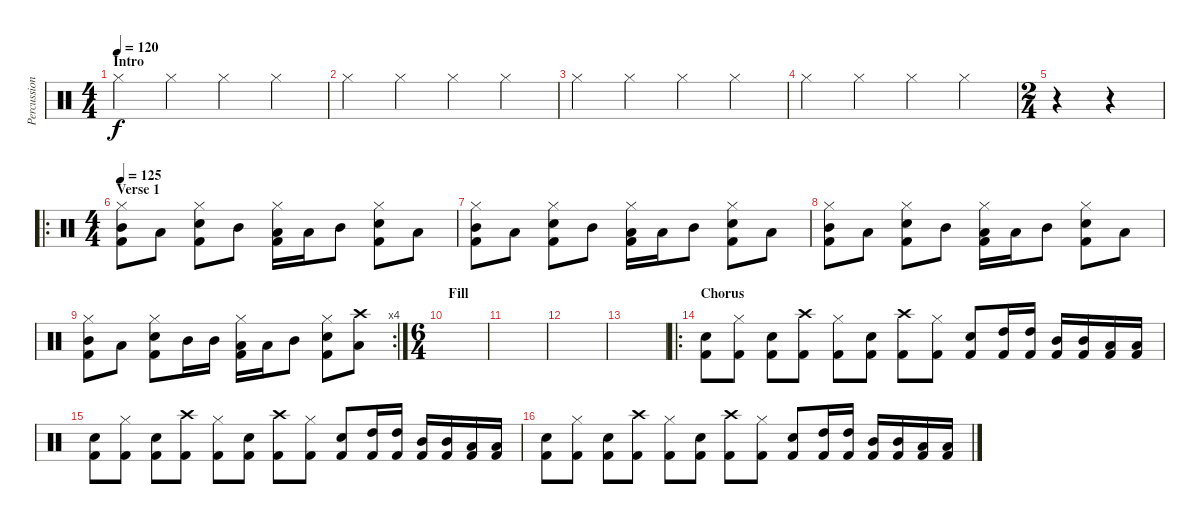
\track ("Percussion" "Percussion") {instrument percussion}
\staff {score}
\articulation defaults
\ts (4 4)
\section ("" "Intro")
\tempo 120
\tempo 125
\tempo 120
\clef neutral
\ks c "Hi-Hat (closed)".4{dy f} "Hi-Hat (closed)".4 "Hi-Hat (closed)".4 "Hi-Hat (closed)".4
|
"Hi-Hat (closed)".4 "Hi-Hat (closed)".4 "Hi-Hat (closed)".4 "Hi-Hat (closed)".4 |
"Hi-Hat (closed)".4 "Hi-Hat (closed)".4 "Hi-Hat (closed)".4 "Hi-Hat (closed)".4 |
"Hi-Hat (closed)".4 "Hi-Hat (closed)".4 "Hi-Hat (closed)".4 "Hi-Hat (closed)".4 |
\ts (2 4)
r.4 r.4 |
\ro
\ts (4 4)
\section ("" "Verse 1")
\tempo 125
("Hi-Hat (closed)" "Mid Tom (hit)" "Kick (hit) 2").8 "Low Tom (hit)".8 ("Hi-Hat (closed)" "Electric Snare (hit)" "Kick (hit) 2").8 "Mid Tom (hit)".8 ("Hi-Hat (closed)" "Low Tom (hit)" "Kick (hit) 2").16 "Low Tom (hit)".16 "Mid Tom (hit)".8 ("Hi-Hat (closed)" "Electric Snare (hit)" "Kick (hit) 2").8 "Low Tom (hit)".8 |
("Hi-Hat (closed)" "Mid Tom (hit)" "Kick (hit) 2").8 "Low Tom (hit)".8 ("Hi-Hat (closed)" "Electric Snare (hit)" "Kick (hit) 2").8 "Mid Tom (hit)".8 ("Hi-Hat (closed)" "Low Tom (hit)" "Kick (hit) 2").16 "Low Tom (hit)".16 "Mid Tom (hit)".8 ("Hi-Hat (closed)" "Electric Snare (hit)" "Kick (hit) 2").8 "Low Tom (hit)".8 |
("Hi-Hat (closed)" "Mid Tom (hit)" "Kick (hit) 2").8 "Low Tom (hit)".8 ("Hi-Hat (closed)" "Electric Snare (hit)" "Kick (hit) 2").8 "Mid Tom (hit)".8 ("Hi-Hat (closed)" "Low Tom (hit)" "Kick (hit) 2").16 "Low Tom (hit)".16 "Mid Tom (hit)".8 ("Hi-Hat (closed)" "Electric Snare (hit)" "Kick (hit) 2").8 "Low Tom (hit)".8 |
\rc 4
("Hi-Hat (closed)" "Mid Tom (hit)" "Kick (hit) 2").8 "Low Tom (hit)".8 ("Hi-Hat (closed)" "Electric Snare (hit)" "Kick (hit) 2").8 "Mid Tom (hit)".16 "Mid Tom (hit)".16 ("Hi-Hat (closed)" "Low Tom (hit)" "Kick (hit) 2").16 "Low Tom (hit)".16 "Mid Tom (hit)".8 ("Hi-Hat (closed)" "Electric Snare (hit)" "Kick (hit) 2").8 ("Crash high (hit)" "Low Tom (hit)").8 |
\ts (6 4)
\section ("" "Fill")
|
|
|
|
\ro
\section ("" "Chorus")
("Electric Snare (hit)" "Kick (hit) 2").8{volume 12} ("Hi-Hat (closed)" "Kick (hit) 2").8 ("Electric Snare (hit)" "Kick (hit) 2").8 ("Crash high (hit)" "Kick (hit) 2").8 ("Hi-Hat (closed)" "Kick (hit) 2").8 ("Electric Snare (hit)" "Kick (hit) 2").8 ("Crash high (hit)" "Kick (hit) 2").8 ("Hi-Hat (closed)" "Kick (hit) 2").8 ("Electric Snare (hit)" "Kick (hit) 2").8 ("High Tom (hit)" "Kick (hit) 2").16 ("High Tom (hit)" "Kick (hit) 2").16 ("Mid Tom (hit)" "Kick (hit) 2").16 ("Mid Tom (hit)" "Kick (hit) 2").16 ("Low Tom (hit)" "Kick (hit) 2").16 ("Low Tom (hit)" "Kick (hit) 2").16 |
("Electric Snare (hit)" "Kick (hit) 2").8 ("Hi-Hat (closed)" "Kick (hit) 2").8 ("Electric Snare (hit)" "Kick (hit) 2").8 ("Crash high (hit)" "Kick (hit) 2").8 ("Hi-Hat (closed)" "Kick (hit) 2").8 ("Electric Snare (hit)" "Kick (hit) 2").8 ("Crash high (hit)" "Kick (hit) 2").8 ("Hi-Hat (closed)" "Kick (hit) 2").8 ("Electric Snare (hit)" "Kick (hit) 2").8 ("High Tom (hit)" "Kick (hit) 2").16 ("High Tom (hit)" "Kick (hit) 2").16 ("Mid Tom (hit)" "Kick (hit) 2").16 ("Mid Tom (hit)" "Kick (hit) 2").16 ("Low Tom (hit)" "Kick (hit) 2").16 ("Low Tom (hit)" "Kick (hit) 2").16 |
("Electric Snare (hit)" "Kick (hit) 2").8 ("Hi-Hat (closed)" "Kick (hit) 2").8 ("Electric Snare (hit)" "Kick (hit) 2").8 ("Crash high (hit)" "Kick (hit) 2").8 ("Hi-Hat (closed)" "Kick (hit) 2").8 ("Electric Snare (hit)" "Kick (hit) 2").8 ("Crash high (hit)" "Kick (hit) 2").8 ("Hi-Hat (closed)" "Kick (hit) 2").8 ("Electric Snare (hit)" "Kick (hit) 2").8 ("High Tom (hit)" "Kick (hit) 2").16 ("High Tom (hit)" "Kick (hit) 2").16 ("Mid Tom (hit)" "Kick (hit) 2").16 ("Mid Tom (hit)" "Kick (hit) 2").16 ("Low Tom (hit)" "Kick (hit) 2").16 ("Low Tom (hit)" "Kick (hit) 2").16
